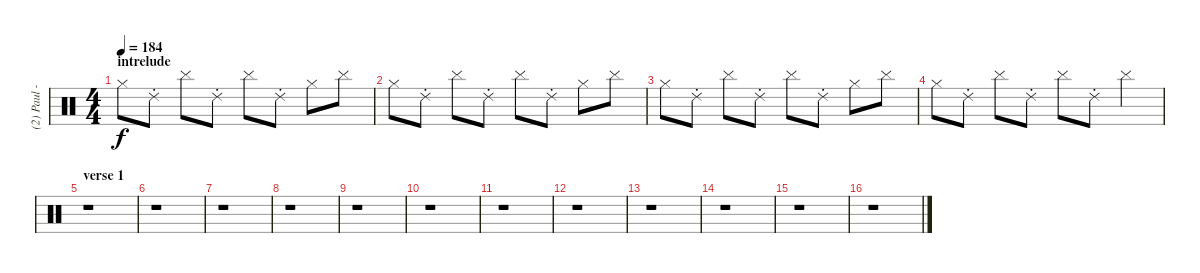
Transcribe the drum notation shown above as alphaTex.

\track ("(2) Paul - DJ" "(2) Paul -") {instrument percussion}
\staff {score}
\articulation defaults
\ts (4 4)
\section ("" "intrelude")
\tempo 184
\clef neutral
\ks c "Hi-Hat (closed)".8{dy f} "Ride (choke) 2".8 "Cymbal (hit)".8 "Ride (choke) 2".8 "Cymbal (hit)".8 "Ride (choke) 2".8 "Hi-Hat (closed)".8 "Cymbal (hit)".8
|
"Hi-Hat (closed)".8 "Ride (choke) 2".8 "Cymbal (hit)".8 "Ride (choke) 2".8 "Cymbal (hit)".8 "Ride (choke) 2".8 "Hi-Hat (closed)".8 "Cymbal (hit)".8 |
"Hi-Hat (closed)".8 "Ride (choke) 2".8 "Cymbal (hit)".8 "Ride (choke) 2".8 "Cymbal (hit)".8 "Ride (choke) 2".8 "Hi-Hat (closed)".8 "Cymbal (hit)".8 |
"Hi-Hat (closed)".8 "Ride (choke) 2".8 "Cymbal (hit)".8 "Ride (choke) 2".8 "Cymbal (hit)".8 "Ride (choke) 2".8 "Cymbal (hit)".4 |
\section ("" "verse 1")
r.1 |
r.1 |
r.1 |
r.1 |
r.1 |
r.1 |
r.1 |
r.1 |
r.1 |
r.1 |
r.1 |
r.1
